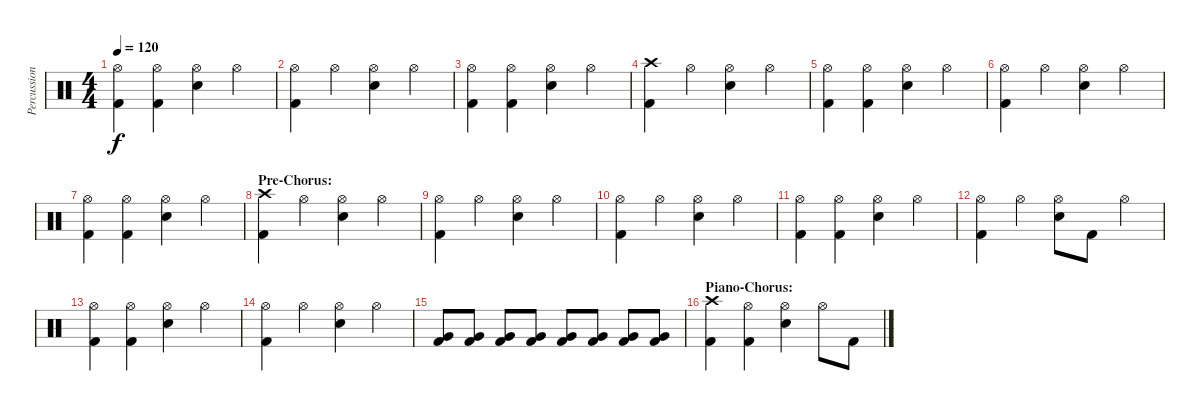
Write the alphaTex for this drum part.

\track ("Percussion" "Percussion") {instrument percussion}
\staff {score}
\articulation defaults
\ts (4 4)
\tempo 120
\clef neutral
\ks c
("Hi-Hat (open)" "Kick (hit) 2").4{dy f} ("Hi-Hat (open)" "Kick (hit) 2").4 ("Hi-Hat (open)" "Electric Snare (hit)").4 "Hi-Hat (open)".4 |
("Hi-Hat (open)" "Kick (hit) 2").4 "Hi-Hat (open)".4 ("Hi-Hat (open)" "Electric Snare (hit)").4 "Hi-Hat (open)".4 |
("Hi-Hat (open)" "Kick (hit) 2").4 ("Hi-Hat (open)" "Kick (hit) 2").4 ("Hi-Hat (open)" "Electric Snare (hit)").4 "Hi-Hat (open)".4 |
("Crash high (hit)" "Kick (hit) 2").4 "Hi-Hat (open)".4 ("Hi-Hat (open)" "Electric Snare (hit)").4 "Hi-Hat (open)".4 |
("Hi-Hat (open)" "Kick (hit) 2").4 ("Hi-Hat (open)" "Kick (hit) 2").4 ("Hi-Hat (open)" "Electric Snare (hit)").4 "Hi-Hat (open)".4 |
("Hi-Hat (open)" "Kick (hit) 2").4 "Hi-Hat (open)".4 ("Hi-Hat (open)" "Electric Snare (hit)").4 "Hi-Hat (open)".4 |
("Hi-Hat (open)" "Kick (hit) 2").4 ("Hi-Hat (open)" "Kick (hit) 2").4 ("Hi-Hat (open)" "Electric Snare (hit)").4 "Hi-Hat (open)".4 |
\section ("" "Pre-Chorus:")
("Crash high (hit)" "Kick (hit) 2").4 "Hi-Hat (open)".4 ("Hi-Hat (open)" "Electric Snare (hit)").4 "Hi-Hat (open)".4 |
("Hi-Hat (open)" "Kick (hit) 2").4 "Hi-Hat (open)".4 ("Hi-Hat (open)" "Electric Snare (hit)").4 "Hi-Hat (open)".4 |
("Hi-Hat (open)" "Kick (hit) 2").4 "Hi-Hat (open)".4 ("Hi-Hat (open)" "Electric Snare (hit)").4 "Hi-Hat (open)".4 |
("Hi-Hat (open)" "Kick (hit) 2").4 ("Hi-Hat (open)" "Kick (hit) 2").4 ("Hi-Hat (open)" "Electric Snare (hit)").4 "Hi-Hat (open)".4 |
("Hi-Hat (open)" "Kick (hit) 2").4 "Hi-Hat (open)".4 ("Hi-Hat (open)" "Electric Snare (hit)").8 "Kick (hit) 2".8 "Hi-Hat (open)".4 |
("Hi-Hat (open)" "Kick (hit) 2").4 ("Hi-Hat (open)" "Kick (hit) 2").4 ("Hi-Hat (open)" "Electric Snare (hit)").4 "Hi-Hat (open)".4 |
("Hi-Hat (open)" "Kick (hit) 2").4 "Hi-Hat (open)".4 ("Hi-Hat (open)" "Electric Snare (hit)").4 "Hi-Hat (open)".4 |
("Very Low Tom (hit)" "Kick (hit) 2").8 ("Very Low Tom (hit)" "Kick (hit) 2").8 ("Very Low Tom (hit)" "Kick (hit) 2").8 ("Very Low Tom (hit)" "Kick (hit) 2").8 ("Very Low Tom (hit)" "Kick (hit) 2").8 ("Very Low Tom (hit)" "Kick (hit) 2").8 ("Very Low Tom (hit)" "Kick (hit) 2").8 ("Very Low Tom (hit)" "Kick (hit) 2").8 |
\section ("" "Piano-Chorus:")
("Crash high (hit)" "Kick (hit) 2").4 ("Hi-Hat (open)" "Kick (hit) 2").4 ("Hi-Hat (open)" "Electric Snare (hit)").4 "Hi-Hat (open)".8 "Kick (hit) 2".8
